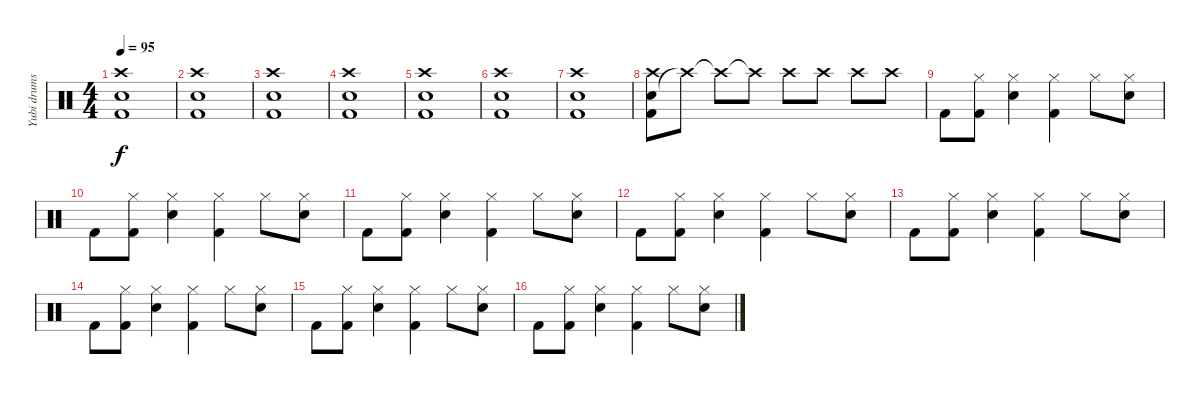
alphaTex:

\track ("Yubi drums" "Yubi drums") {instrument percussion}
\staff {score}
\articulation defaults
\ts (4 4)
\tempo 95
\clef neutral
\ks c
("Snare (hit) 2" "Kick (hit) 2" "Crash high (hit)").1{dy f} |
("Snare (hit) 2" "Kick (hit) 2" "Crash high (hit)").1 |
("Snare (hit) 2" "Kick (hit) 2" "Crash high (hit)").1 |
("Snare (hit) 2" "Kick (hit) 2" "Crash high (hit)").1 |
("Snare (hit) 2" "Kick (hit) 2" "Crash high (hit)").1 |
("Snare (hit) 2" "Kick (hit) 2" "Crash high (hit)").1 |
("Snare (hit) 2" "Kick (hit) 2" "Crash high (hit)").1 |
("Snare (hit) 2" "Kick (hit) 2" "Crash high (hit)").8 "Crash high (hit)"{t}.8 "Crash high (hit)"{t}.8 "Crash high (hit)"{t}.8 "Crash high (hit)".8 "Crash high (hit)".8 "Crash high (hit)".8 "Crash high (hit)".8 |
"Kick (hit) 2".8 ("Kick (hit) 2" "Hi-Hat (closed)").8 ("Snare (hit) 2" "Hi-Hat (closed)").4 ("Kick (hit) 2" "Hi-Hat (closed)").4 "Hi-Hat (closed)".8 ("Snare (hit) 2" "Hi-Hat (closed)").8 |
"Kick (hit) 2".8 ("Kick (hit) 2" "Hi-Hat (closed)").8 ("Snare (hit) 2" "Hi-Hat (closed)").4 ("Kick (hit) 2" "Hi-Hat (closed)").4 "Hi-Hat (closed)".8 ("Snare (hit) 2" "Hi-Hat (closed)").8 |
"Kick (hit) 2".8 ("Kick (hit) 2" "Hi-Hat (closed)").8 ("Snare (hit) 2" "Hi-Hat (closed)").4 ("Kick (hit) 2" "Hi-Hat (closed)").4 "Hi-Hat (closed)".8 ("Snare (hit) 2" "Hi-Hat (closed)").8 |
"Kick (hit) 2".8 ("Kick (hit) 2" "Hi-Hat (closed)").8 ("Snare (hit) 2" "Hi-Hat (closed)").4 ("Kick (hit) 2" "Hi-Hat (closed)").4 "Hi-Hat (closed)".8 ("Snare (hit) 2" "Hi-Hat (closed)").8 |
"Kick (hit) 2".8 ("Kick (hit) 2" "Hi-Hat (closed)").8 ("Snare (hit) 2" "Hi-Hat (closed)").4 ("Kick (hit) 2" "Hi-Hat (closed)").4 "Hi-Hat (closed)".8 ("Snare (hit) 2" "Hi-Hat (closed)").8 |
"Kick (hit) 2".8 ("Kick (hit) 2" "Hi-Hat (closed)").8 ("Snare (hit) 2" "Hi-Hat (closed)").4 ("Kick (hit) 2" "Hi-Hat (closed)").4 "Hi-Hat (closed)".8 ("Snare (hit) 2" "Hi-Hat (closed)").8 |
"Kick (hit) 2".8 ("Kick (hit) 2" "Hi-Hat (closed)").8 ("Snare (hit) 2" "Hi-Hat (closed)").4 ("Kick (hit) 2" "Hi-Hat (closed)").4 "Hi-Hat (closed)".8 ("Snare (hit) 2" "Hi-Hat (closed)").8 |
"Kick (hit) 2".8 ("Kick (hit) 2" "Hi-Hat (closed)").8 ("Snare (hit) 2" "Hi-Hat (closed)").4 ("Kick (hit) 2" "Hi-Hat (closed)").4 "Hi-Hat (closed)".8 ("Snare (hit) 2" "Hi-Hat (closed)").8
